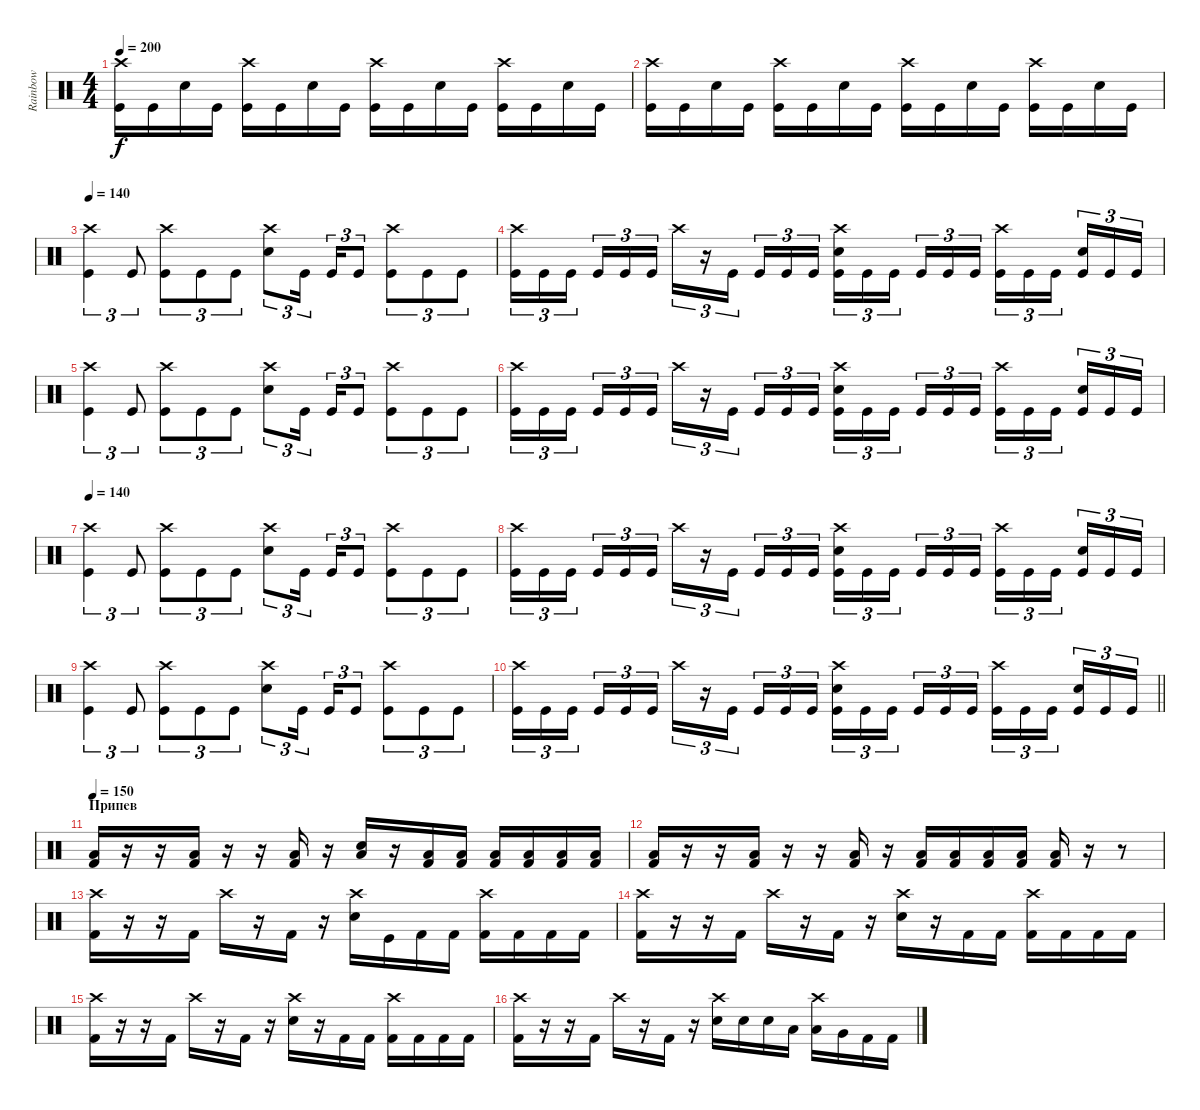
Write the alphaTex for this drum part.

\track ("Rainbow" "Rainbow") {instrument percussion}
\staff {score}
\articulation defaults
\ts (4 4)
\tempo 200
\clef neutral
\ks c
("Crash high (hit)" "Kick (hit)").16{dy f} "Kick (hit)".16 "Electric Snare (hit)".16 "Kick (hit)".16 ("Crash high (hit)" "Kick (hit)").16 "Kick (hit)".16 "Electric Snare (hit)".16 "Kick (hit)".16 ("Crash high (hit)" "Kick (hit)").16 "Kick (hit)".16 "Electric Snare (hit)".16 "Kick (hit)".16 ("Crash high (hit)" "Kick (hit)").16 "Kick (hit)".16 "Electric Snare (hit)".16 "Kick (hit)".16 |
("Crash high (hit)" "Kick (hit)").16 "Kick (hit)".16 "Electric Snare (hit)".16 "Kick (hit)".16 ("Crash high (hit)" "Kick (hit)").16 "Kick (hit)".16 "Electric Snare (hit)".16 "Kick (hit)".16 ("Crash high (hit)" "Kick (hit)").16 "Kick (hit)".16 "Electric Snare (hit)".16 "Kick (hit)".16 ("Crash high (hit)" "Kick (hit)").16 "Kick (hit)".16 "Electric Snare (hit)".16 "Kick (hit)".16 |
\tempo 140
("Crash high (hit)" "Kick (hit)").4{tu (3 2)} "Kick (hit)".8{tu (3 2)} ("Crash high (hit)" "Kick (hit)").8{tu (3 2)} "Kick (hit)".8{tu (3 2)} "Kick (hit)".8{tu (3 2)} ("Crash high (hit)" "Electric Snare (hit)").8{tu (3 2)} "Kick (hit)".16{tu (3 2) beam splitsecondary} "Kick (hit)".16{tu (3 2)} "Kick (hit)".8{tu (3 2)} ("Crash high (hit)" "Kick (hit)").8{tu (3 2)} "Kick (hit)".8{tu (3 2)} "Kick (hit)".8{tu (3 2)} |
("Crash high (hit)" "Kick (hit)").16{tu (3 2)} "Kick (hit)".16{tu (3 2)} "Kick (hit)".16{tu (3 2) beam splitsecondary} "Kick (hit)".16{tu (3 2)} "Kick (hit)".16{tu (3 2)} "Kick (hit)".16{tu (3 2)} "Crash high (hit)".16{tu (3 2)} r.16{tu (3 2)} "Kick (hit)".16{tu (3 2) beam splitsecondary} "Kick (hit)".16{tu (3 2)} "Kick (hit)".16{tu (3 2)} "Kick (hit)".16{tu (3 2)} ("Crash high (hit)" "Electric Snare (hit)" "Kick (hit)").16{tu (3 2)} "Kick (hit)".16{tu (3 2)} "Kick (hit)".16{tu (3 2) beam splitsecondary} "Kick (hit)".16{tu (3 2)} "Kick (hit)".16{tu (3 2)} "Kick (hit)".16{tu (3 2)} ("Crash high (hit)" "Kick (hit)").16{tu (3 2)} "Kick (hit)".16{tu (3 2)} "Kick (hit)".16{tu (3 2) beam splitsecondary} ("Electric Snare (hit)" "Kick (hit)").16{tu (3 2)} "Kick (hit)".16{tu (3 2)} "Kick (hit)".16{tu (3 2)} |
("Crash high (hit)" "Kick (hit)").4{tu (3 2)} "Kick (hit)".8{tu (3 2)} ("Crash high (hit)" "Kick (hit)").8{tu (3 2)} "Kick (hit)".8{tu (3 2)} "Kick (hit)".8{tu (3 2)} ("Crash high (hit)" "Electric Snare (hit)").8{tu (3 2)} "Kick (hit)".16{tu (3 2) beam splitsecondary} "Kick (hit)".16{tu (3 2)} "Kick (hit)".8{tu (3 2)} ("Crash high (hit)" "Kick (hit)").8{tu (3 2)} "Kick (hit)".8{tu (3 2)} "Kick (hit)".8{tu (3 2)} |
("Crash high (hit)" "Kick (hit)").16{tu (3 2)} "Kick (hit)".16{tu (3 2)} "Kick (hit)".16{tu (3 2) beam splitsecondary} "Kick (hit)".16{tu (3 2)} "Kick (hit)".16{tu (3 2)} "Kick (hit)".16{tu (3 2)} "Crash high (hit)".16{tu (3 2)} r.16{tu (3 2)} "Kick (hit)".16{tu (3 2) beam splitsecondary} "Kick (hit)".16{tu (3 2)} "Kick (hit)".16{tu (3 2)} "Kick (hit)".16{tu (3 2)} ("Crash high (hit)" "Electric Snare (hit)" "Kick (hit)").16{tu (3 2)} "Kick (hit)".16{tu (3 2)} "Kick (hit)".16{tu (3 2) beam splitsecondary} "Kick (hit)".16{tu (3 2)} "Kick (hit)".16{tu (3 2)} "Kick (hit)".16{tu (3 2)} ("Crash high (hit)" "Kick (hit)").16{tu (3 2)} "Kick (hit)".16{tu (3 2)} "Kick (hit)".16{tu (3 2) beam splitsecondary} ("Electric Snare (hit)" "Kick (hit)").16{tu (3 2)} "Kick (hit)".16{tu (3 2)} "Kick (hit)".16{tu (3 2)} |
\tempo 140
("Crash high (hit)" "Kick (hit)").4{tu (3 2)} "Kick (hit)".8{tu (3 2)} ("Crash high (hit)" "Kick (hit)").8{tu (3 2)} "Kick (hit)".8{tu (3 2)} "Kick (hit)".8{tu (3 2)} ("Crash high (hit)" "Electric Snare (hit)").8{tu (3 2)} "Kick (hit)".16{tu (3 2) beam splitsecondary} "Kick (hit)".16{tu (3 2)} "Kick (hit)".8{tu (3 2)} ("Crash high (hit)" "Kick (hit)").8{tu (3 2)} "Kick (hit)".8{tu (3 2)} "Kick (hit)".8{tu (3 2)} |
("Crash high (hit)" "Kick (hit)").16{tu (3 2)} "Kick (hit)".16{tu (3 2)} "Kick (hit)".16{tu (3 2) beam splitsecondary} "Kick (hit)".16{tu (3 2)} "Kick (hit)".16{tu (3 2)} "Kick (hit)".16{tu (3 2)} "Crash high (hit)".16{tu (3 2)} r.16{tu (3 2)} "Kick (hit)".16{tu (3 2) beam splitsecondary} "Kick (hit)".16{tu (3 2)} "Kick (hit)".16{tu (3 2)} "Kick (hit)".16{tu (3 2)} ("Crash high (hit)" "Electric Snare (hit)" "Kick (hit)").16{tu (3 2)} "Kick (hit)".16{tu (3 2)} "Kick (hit)".16{tu (3 2) beam splitsecondary} "Kick (hit)".16{tu (3 2)} "Kick (hit)".16{tu (3 2)} "Kick (hit)".16{tu (3 2)} ("Crash high (hit)" "Kick (hit)").16{tu (3 2)} "Kick (hit)".16{tu (3 2)} "Kick (hit)".16{tu (3 2) beam splitsecondary} ("Electric Snare (hit)" "Kick (hit)").16{tu (3 2)} "Kick (hit)".16{tu (3 2)} "Kick (hit)".16{tu (3 2)} |
("Crash high (hit)" "Kick (hit)").4{tu (3 2)} "Kick (hit)".8{tu (3 2)} ("Crash high (hit)" "Kick (hit)").8{tu (3 2)} "Kick (hit)".8{tu (3 2)} "Kick (hit)".8{tu (3 2)} ("Crash high (hit)" "Electric Snare (hit)").8{tu (3 2)} "Kick (hit)".16{tu (3 2) beam splitsecondary} "Kick (hit)".16{tu (3 2)} "Kick (hit)".8{tu (3 2)} ("Crash high (hit)" "Kick (hit)").8{tu (3 2)} "Kick (hit)".8{tu (3 2)} "Kick (hit)".8{tu (3 2)} |
\barLineRight lightlight
("Crash high (hit)" "Kick (hit)").16{tu (3 2)} "Kick (hit)".16{tu (3 2)} "Kick (hit)".16{tu (3 2) beam splitsecondary} "Kick (hit)".16{tu (3 2)} "Kick (hit)".16{tu (3 2)} "Kick (hit)".16{tu (3 2)} "Crash high (hit)".16{tu (3 2)} r.16{tu (3 2)} "Kick (hit)".16{tu (3 2) beam splitsecondary} "Kick (hit)".16{tu (3 2)} "Kick (hit)".16{tu (3 2)} "Kick (hit)".16{tu (3 2)} ("Crash high (hit)" "Electric Snare (hit)" "Kick (hit)").16{tu (3 2)} "Kick (hit)".16{tu (3 2)} "Kick (hit)".16{tu (3 2) beam splitsecondary} "Kick (hit)".16{tu (3 2)} "Kick (hit)".16{tu (3 2)} "Kick (hit)".16{tu (3 2)} ("Crash high (hit)" "Kick (hit)").16{tu (3 2)} "Kick (hit)".16{tu (3 2)} "Kick (hit)".16{tu (3 2) beam splitsecondary} ("Electric Snare (hit)" "Kick (hit)").16{tu (3 2)} "Kick (hit)".16{tu (3 2)} "Kick (hit)".16{tu (3 2)} |
\section ("" "Припев")
\tempo 150
("Low Floor Tom (hit)" "Kick (hit) 2").16 r.16 r.16 ("Low Floor Tom (hit)" "Kick (hit) 2").16 r.16 r.16 ("Low Floor Tom (hit)" "Kick (hit) 2").16 r.16 ("Low Floor Tom (hit)" "Electric Snare (hit)").16 r.16 ("Low Floor Tom (hit)" "Kick (hit) 2").16 ("Low Floor Tom (hit)" "Kick (hit) 2").16 ("Low Floor Tom (hit)" "Kick (hit) 2").16 ("Low Floor Tom (hit)" "Kick (hit) 2").16 ("Low Floor Tom (hit)" "Kick (hit) 2").16 ("Low Floor Tom (hit)" "Kick (hit) 2").16 |
("Low Floor Tom (hit)" "Kick (hit) 2").16 r.16 r.16 ("Low Floor Tom (hit)" "Kick (hit) 2").16 r.16 r.16 ("Low Floor Tom (hit)" "Kick (hit) 2").16 r.16 ("Low Floor Tom (hit)" "Kick (hit) 2").16 ("Low Floor Tom (hit)" "Kick (hit) 2").16 ("Low Floor Tom (hit)" "Kick (hit) 2").16 ("Low Floor Tom (hit)" "Kick (hit) 2").16 ("Low Floor Tom (hit)" "Kick (hit) 2").16 r.16 r.8 |
("Crash high (hit)" "Kick (hit) 2").16 r.16 r.16 "Kick (hit) 2".16 "Crash high (hit)".16 r.16 "Kick (hit) 2".16 r.16 ("Crash high (hit)" "Electric Snare (hit)").16 "Kick (hit)".16 "Kick (hit) 2".16 "Kick (hit) 2".16 ("Crash high (hit)" "Kick (hit) 2").16 "Kick (hit) 2".16 "Kick (hit) 2".16 "Kick (hit) 2".16 |
("Crash high (hit)" "Kick (hit) 2").16 r.16 r.16 "Kick (hit) 2".16 "Crash high (hit)".16 r.16 "Kick (hit) 2".16 r.16 ("Crash high (hit)" "Electric Snare (hit)").16 r.16 "Kick (hit) 2".16 "Kick (hit) 2".16 ("Crash high (hit)" "Kick (hit) 2").16 "Kick (hit) 2".16 "Kick (hit) 2".16 "Kick (hit) 2".16 |
("Crash high (hit)" "Kick (hit) 2").16 r.16 r.16 "Kick (hit) 2".16 "Crash high (hit)".16 r.16 "Kick (hit) 2".16 r.16 ("Crash high (hit)" "Electric Snare (hit)").16 r.16 "Kick (hit) 2".16 "Kick (hit) 2".16 ("Crash high (hit)" "Kick (hit) 2").16 "Kick (hit) 2".16 "Kick (hit) 2".16 "Kick (hit) 2".16 |
("Crash high (hit)" "Kick (hit) 2").16 r.16 r.16 "Kick (hit) 2".16 "Crash high (hit)".16 r.16 "Kick (hit) 2".16 r.16 ("Crash high (hit)" "Electric Snare (hit)").16 "Electric Snare (hit)".16 "Electric Snare (hit)".16 "Low Tom (hit)".16 ("Crash high (hit)" "Low Tom (hit)").16 "Very Low Tom (hit)".16 "Kick (hit) 2".16 "Kick (hit) 2".16
